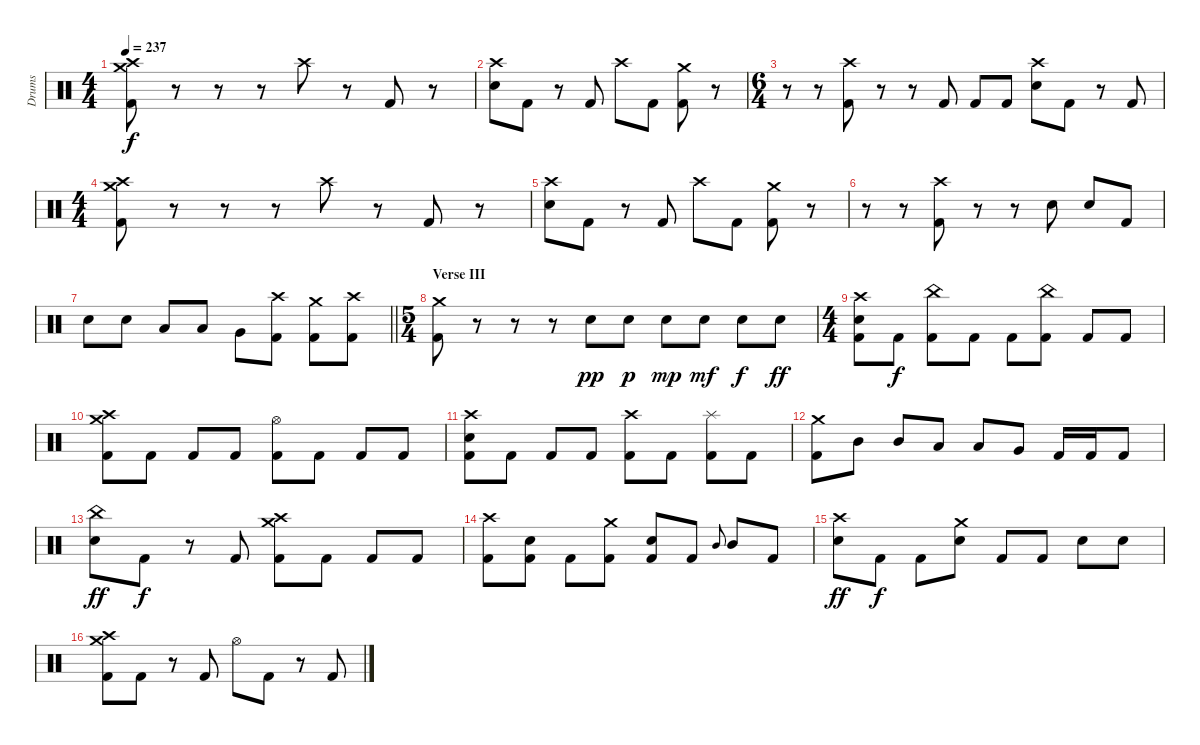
\track ("Drums" "Drums") {instrument percussion}
\staff {score}
\articulation defaults
\ts (4 4)
\tempo 237
\clef neutral
\ks c
("Crash high (hit)" "Crash medium (hit)" "Kick (hit) 2").8{dy f} r.8 r.8 r.8 "Crash high (hit)".8 r.8 "Kick (hit) 2".8 r.8 |
("Crash high (hit)" "Electric Snare (hit)").8 "Kick (hit) 2".8 r.8 "Kick (hit) 2".8 "Crash high (hit)".8 "Kick (hit) 2".8 ("Crash medium (hit)" "Kick (hit) 2").8 r.8 |
\ts (6 4)
r.8 r.8 ("Crash high (hit)" "Kick (hit) 2").8 r.8 r.8 "Kick (hit) 2".8 "Kick (hit) 2".8 "Kick (hit) 2".8 ("Crash high (hit)" "Electric Snare (hit)").8 "Kick (hit) 2".8 r.8 "Kick (hit) 2".8 |
\ts (4 4)
("Crash high (hit)" "Crash medium (hit)" "Kick (hit) 2").8 r.8 r.8 r.8 "Crash high (hit)".8 r.8 "Kick (hit) 2".8 r.8 |
("Crash high (hit)" "Electric Snare (hit)").8 "Kick (hit) 2".8 r.8 "Kick (hit) 2".8 "Crash high (hit)".8 "Kick (hit) 2".8 ("Crash medium (hit)" "Kick (hit) 2").8 r.8 |
r.8 r.8 ("Crash high (hit)" "Kick (hit) 2").8 r.8 r.8 "Electric Snare (hit)".8 "Electric Snare (hit)".8 "Kick (hit) 2".8 |
\barLineRight lightlight "Electric Snare (hit)".8 "Electric Snare (hit)".8 "Low Tom (hit)".8 "Low Tom (hit)".8 "Very Low Tom (hit)".8
("Crash high (hit)" "Kick (hit) 2").8 ("Crash medium (hit)" "Kick (hit) 2").8 ("Crash high (hit)" "Kick (hit) 2").8 |
\ts (5 4)
\section ("" "Verse III")
("Crash medium (hit)" "Kick (hit) 2").8 r.8 r.8 r.8 "Electric Snare (hit)".8{dy pp} "Electric Snare (hit)".8{dy p} "Electric Snare (hit)".8{dy mp} "Electric Snare (hit)".8{dy mf} "Electric Snare (hit)".8{dy f} "Electric Snare (hit)".8{dy ff} |
\ts (4 4)
("Crash high (hit)" "Electric Snare (hit)" "Kick (hit) 2").8 "Kick (hit) 2".8{dy f} ("China (hit)" "Kick (hit) 2").8 "Kick (hit) 2".8 "Kick (hit) 2".8 ("China (hit)" "Kick (hit) 2").8 "Kick (hit) 2".8 "Kick (hit) 2".8 |
("Crash high (hit)" "Crash medium (hit)" "Kick (hit) 2").8 "Kick (hit) 2".8 "Kick (hit) 2".8 "Kick (hit) 2".8 ("Hi-Hat (open)" "Kick (hit) 2").8 "Kick (hit) 2".8 "Kick (hit) 2".8 "Kick (hit) 2".8 |
("Crash high (hit)" "Electric Snare (hit)" "Kick (hit) 2").8 "Kick (hit) 2".8 "Kick (hit) 2".8 "Kick (hit) 2".8 ("Crash high (hit)" "Kick (hit) 2").8 "Kick (hit) 2".8 ("Splash (hit)" "Kick (hit) 2").8 "Kick (hit) 2".8 |
("Crash medium (hit)" "Kick (hit) 2").8 "Mid Tom (hit)".8 "Mid Tom (hit)".8 "Low Tom (hit)".8 "Low Tom (hit)".8 "Very Low Tom (hit)".8 "Kick (hit) 2".16 "Kick (hit) 2".16 "Kick (hit) 2".8 |
("China (hit)" "Electric Snare (hit)").8{dy ff} "Kick (hit) 2".8{dy f} r.8 "Kick (hit) 2".8 ("Crash high (hit)" "Crash medium (hit)" "Kick (hit) 2").8 "Kick (hit) 2".8 "Kick (hit) 2".8 "Kick (hit) 2".8 |
("Crash high (hit)" "Kick (hit) 2").8 ("Electric Snare (hit)" "Kick (hit) 2").8 "Kick (hit) 2".8 ("Crash medium (hit)" "Kick (hit) 2").8 ("Electric Snare (hit)" "Kick (hit) 2").8 "Kick (hit) 2".8 "Mid Tom (hit)".8{gr onbeat} "Mid Tom (hit)".8 "Kick (hit) 2".8 |
("Crash high (hit)" "Electric Snare (hit)").8{dy ff} "Kick (hit) 2".8{dy f} "Kick (hit) 2".8 ("Crash medium (hit)" "Electric Snare (hit)").8 "Kick (hit) 2".8 "Kick (hit) 2".8 "Electric Snare (hit)".8 "Electric Snare (hit)".8 |
("Crash high (hit)" "Crash medium (hit)" "Kick (hit) 2").8 "Kick (hit) 2".8 r.8 "Kick (hit) 2".8 "Hi-Hat (open)".8 "Kick (hit) 2".8 r.8 "Kick (hit) 2".8
